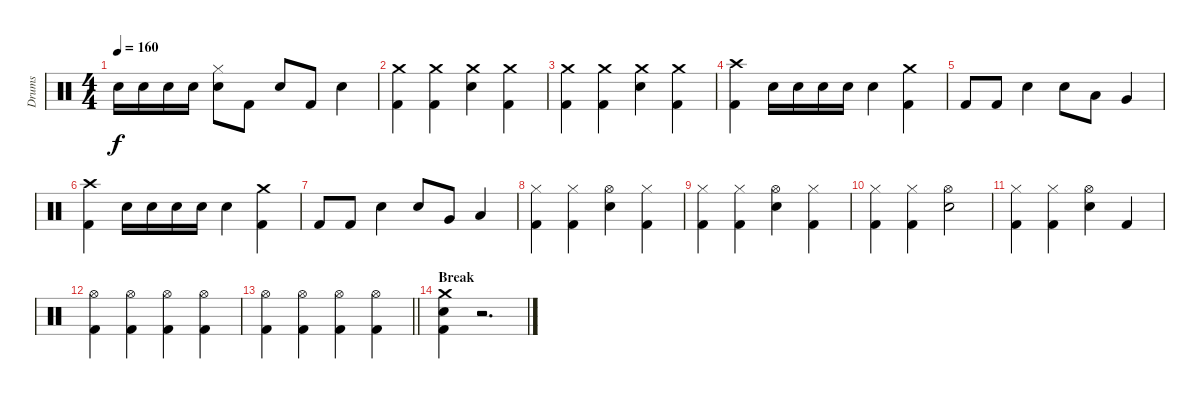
\track ("Drums" "Drums") {instrument percussion}
\staff {score}
\articulation defaults
\ts (4 4)
\tempo 160
\clef neutral
\ks c "Snare (hit) 2".16{dy f} "Snare (hit) 2".16 "Snare (hit) 2".16 "Snare (hit) 2".16
("Hi-Hat (closed)" "Snare (hit) 2").8 "Kick (hit) 2".8 "Snare (hit) 2".8 "Kick (hit) 2".8 "Snare (hit) 2".4 |
("Crash medium (hit)" "Kick (hit) 2").4 ("Crash medium (hit)" "Kick (hit) 2").4 ("Crash medium (hit)" "Snare (hit) 2").4 ("Crash medium (hit)" "Kick (hit) 2").4 |
("Crash medium (hit)" "Kick (hit) 2").4 ("Crash medium (hit)" "Kick (hit) 2").4 ("Crash medium (hit)" "Snare (hit) 2").4 ("Crash medium (hit)" "Kick (hit) 2").4 |
("Crash high (hit)" "Kick (hit) 2").4 "Snare (hit) 2".16 "Snare (hit) 2".16 "Snare (hit) 2".16 "Snare (hit) 2".16 "Snare (hit) 2".4 ("Crash medium (hit)" "Kick (hit) 2").4 |
"Kick (hit) 2".8 "Kick (hit) 2".8 "Snare (hit) 2".4 "Snare (hit) 2".8 "Low Tom (hit)".8 "Very Low Tom (hit)".4 |
("Crash high (hit)" "Kick (hit) 2").4 "Snare (hit) 2".16 "Snare (hit) 2".16 "Snare (hit) 2".16 "Snare (hit) 2".16 "Snare (hit) 2".4 ("Crash medium (hit)" "Kick (hit) 2").4 |
"Kick (hit) 2".8 "Kick (hit) 2".8 "Snare (hit) 2".4 "Snare (hit) 2".8 "Very Low Tom (hit)".8 "Low Floor Tom (hit)".4 |
("Hi-Hat (closed)" "Kick (hit) 2").4 ("Hi-Hat (closed)" "Kick (hit) 2").4 ("Hi-Hat (open)" "Snare (hit) 2").4 ("Hi-Hat (closed)" "Kick (hit) 2").4 |
("Hi-Hat (closed)" "Kick (hit) 2").4 ("Hi-Hat (closed)" "Kick (hit) 2").4 ("Hi-Hat (open)" "Snare (hit) 2").4 ("Hi-Hat (closed)" "Kick (hit) 2").4 |
("Hi-Hat (closed)" "Kick (hit) 2").4 ("Hi-Hat (closed)" "Kick (hit) 2").4 ("Hi-Hat (open)" "Snare (hit) 2").2 |
("Hi-Hat (closed)" "Kick (hit) 2").4 ("Hi-Hat (closed)" "Kick (hit) 2").4 ("Hi-Hat (open)" "Snare (hit) 2").4 "Kick (hit) 2".4 |
("Hi-Hat (open)" "Kick (hit) 2").4 ("Hi-Hat (open)" "Kick (hit) 2").4 ("Hi-Hat (open)" "Kick (hit) 2").4 ("Hi-Hat (open)" "Kick (hit) 2").4 |
\barLineRight lightlight
("Hi-Hat (open)" "Kick (hit) 2").4 ("Hi-Hat (open)" "Kick (hit) 2").4 ("Hi-Hat (open)" "Kick (hit) 2").4 ("Hi-Hat (open)" "Kick (hit) 2").4 |
\section ("" "Break")
("Crash medium (hit)" "Snare (hit) 2" "Kick (hit) 2").4 r.2{d}
